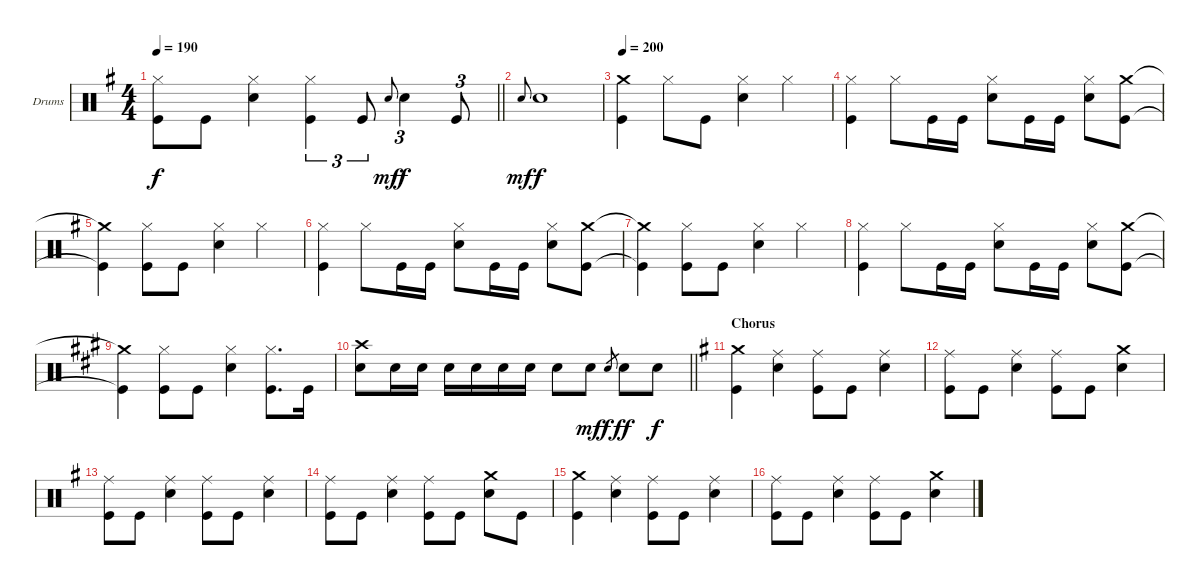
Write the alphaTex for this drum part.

\bracketExtendMode groupsimilarinstruments
\firstSystemTrackNameOrientation horizontal
\otherSystemsTrackNameOrientation horizontal
\track ("Drums" "Drums") {instrument percussion}
\staff {score}
\articulation defaults
\ts (4 4)
\tempo 190
\clef neutral
\barLineRight lightlight
\ks g
("Kick (hit)" "Hi-Hat (closed)").8{dy f} "Kick (hit)".8 ("Snare (hit) 2" "Hi-Hat (closed)").4 ("Kick (hit)" "Hi-Hat (closed)").4{tu (3 2)} "Kick (hit)".8{tu (3 2)} "Snare (hit) 2".8{tu (3 2) gr onbeat dy mf} "Snare (hit) 2".4{tu (3 2) dy f} "Kick (hit)".8{tu (3 2)} |
"Snare (hit) 2".8{gr onbeat dy mf} "Snare (hit) 2".1{dy f} |
\tempo 200
("Crash medium (hit)" "Kick (hit)").4 "Hi-Hat (closed)".8 "Kick (hit)".8 ("Hi-Hat (closed)" "Snare (hit) 2").4 "Hi-Hat (closed)".4 |
("Kick (hit)" "Hi-Hat (closed)").4 "Hi-Hat (closed)".8 "Kick (hit)".16 "Kick (hit)".16 ("Snare (hit) 2" "Hi-Hat (closed)").8 "Kick (hit)".16 "Kick (hit)".16 ("Snare (hit) 2" "Hi-Hat (closed)").8 ("Crash medium (hit)" "Kick (hit)").8 |
("Crash medium (hit)"{t} "Kick (hit)"{t}).4 ("Kick (hit)" "Hi-Hat (closed)").8 "Kick (hit)".8 ("Hi-Hat (closed)" "Snare (hit) 2").4 "Hi-Hat (closed)".4 |
("Kick (hit)" "Hi-Hat (closed)").4 "Hi-Hat (closed)".8 "Kick (hit)".16 "Kick (hit)".16 ("Snare (hit) 2" "Hi-Hat (closed)").8 "Kick (hit)".16 "Kick (hit)".16 ("Snare (hit) 2" "Hi-Hat (closed)").8 ("Crash medium (hit)" "Kick (hit)").8 |
("Crash medium (hit)"{t} "Kick (hit)"{t}).4 ("Hi-Hat (closed)" "Kick (hit)").8 "Kick (hit)".8 ("Hi-Hat (closed)" "Snare (hit) 2").4 "Hi-Hat (closed)".4 |
("Kick (hit)" "Hi-Hat (closed)").4 "Hi-Hat (closed)".8 "Kick (hit)".16 "Kick (hit)".16 ("Snare (hit) 2" "Hi-Hat (closed)").8 "Kick (hit)".16 "Kick (hit)".16 ("Snare (hit) 2" "Hi-Hat (closed)").8 ("Crash medium (hit)" "Kick (hit)").8 |
\ks a
("Crash medium (hit)"{t} "Kick (hit)"{t}).4 ("Hi-Hat (closed)" "Kick (hit)").8 "Kick (hit)".8 ("Hi-Hat (closed)" "Snare (hit) 2").4 ("Hi-Hat (closed)" "Kick (hit)").8{d} "Kick (hit)".16 |
\barLineRight lightlight
("Snare (hit) 2" "Crash high (hit)").8 "Snare (hit) 2".16 "Snare (hit) 2".16 "Snare (hit) 2".16 "Snare (hit) 2".16 "Snare (hit) 2".16 "Snare (hit) 2".16 "Snare (hit) 2".8 "Snare (hit) 2".8{dy mf} "Snare (hit) 2".8{gr dy f} "Snare (hit) 2".8{dy ff} "Snare (hit) 2".8{dy f} |
\section ("" "Chorus")
\ks g
("Crash medium (hit)" "Kick (hit)").4 ("Ride (middle)" "Snare (hit) 2").4 ("Ride (middle)" "Kick (hit)").8 "Kick (hit)".8 ("Ride (middle)" "Snare (hit) 2").4 |
("Ride (middle)" "Kick (hit)").8 "Kick (hit)".8 ("Ride (middle)" "Snare (hit) 2").4 ("Ride (middle)" "Kick (hit)").8 "Kick (hit)".8 ("Crash medium (hit)" "Snare (hit) 2").4 |
("Ride (middle)" "Kick (hit)").8 "Kick (hit)".8 ("Ride (middle)" "Snare (hit) 2").4 ("Ride (middle)" "Kick (hit)").8 "Kick (hit)".8 ("Ride (middle)" "Snare (hit) 2").4 |
("Ride (middle)" "Kick (hit)").8 "Kick (hit)".8 ("Ride (middle)" "Snare (hit) 2").4 ("Ride (middle)" "Kick (hit)").8 "Kick (hit)".8 ("Snare (hit) 2" "Crash medium (hit)").8 "Kick (hit)".8 |
("Crash medium (hit)" "Kick (hit)").4 ("Ride (middle)" "Snare (hit) 2").4 ("Ride (middle)" "Kick (hit)").8 "Kick (hit)".8 ("Ride (middle)" "Snare (hit) 2").4 |
("Ride (middle)" "Kick (hit)").8 "Kick (hit)".8 ("Ride (middle)" "Snare (hit) 2").4 ("Ride (middle)" "Kick (hit)").8 "Kick (hit)".8 ("Crash medium (hit)" "Snare (hit) 2").4
